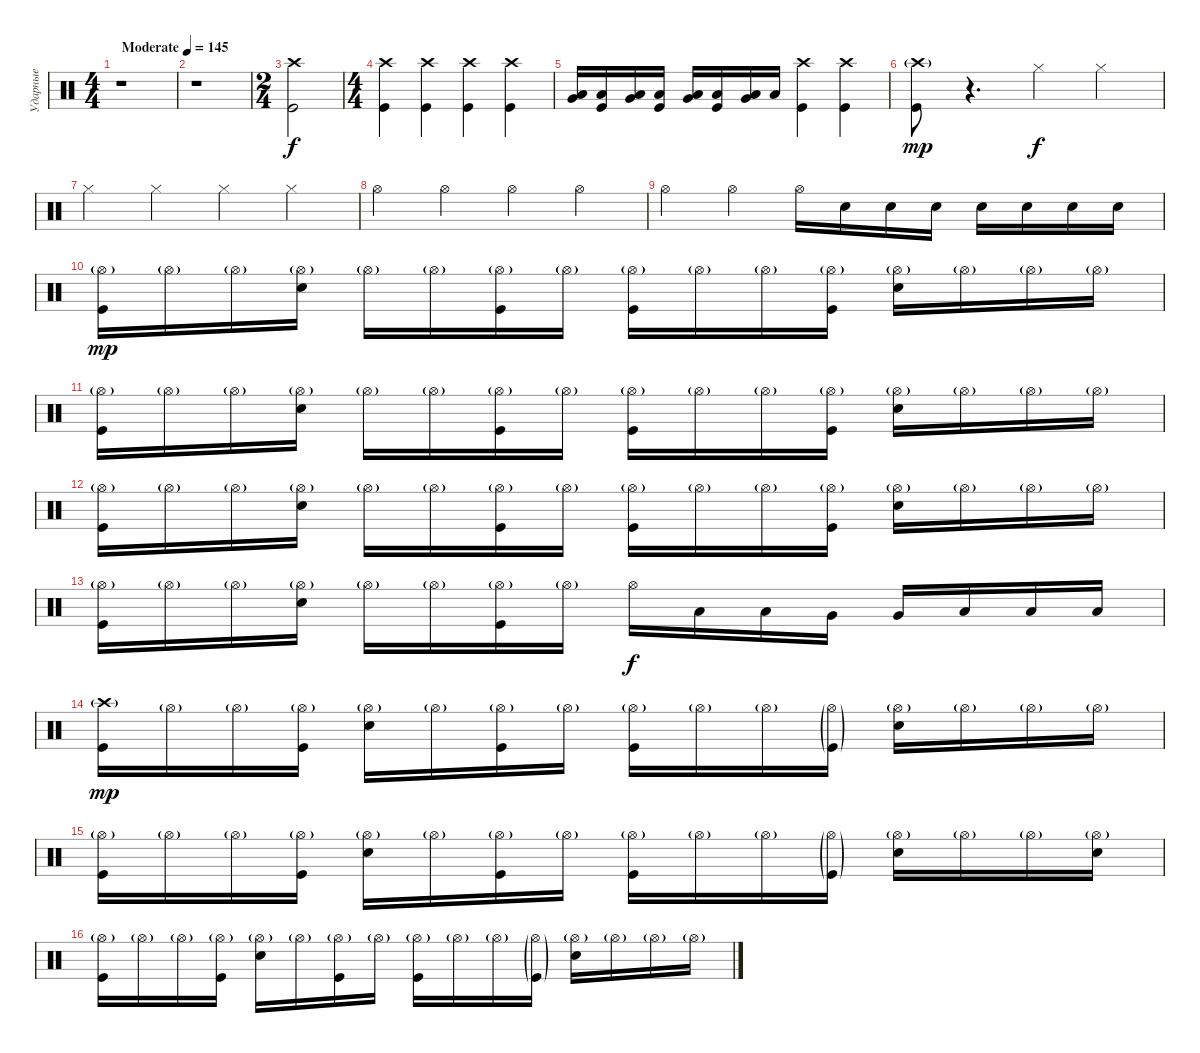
\track ("Ударные" "Ударные") {instrument percussion}
\staff {score}
\articulation defaults
\ts (4 4)
\tempo (145 "Moderate")
\clef neutral
\ks c
r.1{dy f} |
r.1 |
\ts (2 4)
("Crash high (hit)" "Kick (hit)").2 |
\ts (4 4)
("Crash high (hit)" "Kick (hit)").4 ("Crash high (hit)" "Kick (hit)").4 ("Crash high (hit)" "Kick (hit)").4 ("Crash high (hit)" "Kick (hit)").4 |
("Low Tom (hit)" "Very Low Tom (hit)").16 ("Low Tom (hit)" "Kick (hit)").16 ("Low Tom (hit)" "Very Low Tom (hit)").16 ("Low Tom (hit)" "Kick (hit)").16 ("Low Tom (hit)" "Very Low Tom (hit)").16 ("Low Tom (hit)" "Kick (hit)").16 ("Low Tom (hit)" "Very Low Tom (hit)").16 "Low Tom (hit)".16 ("Crash high (hit)" "Kick (hit)").4 ("Crash high (hit)" "Kick (hit)").4 |
("Crash high (hit)"{g} "Kick (hit)").8{dy mp} r.4{d} "Hi-Hat (closed)".4{dy f} "Hi-Hat (closed)".4 |
"Hi-Hat (closed)".4 "Hi-Hat (closed)".4 "Hi-Hat (closed)".4 "Hi-Hat (closed)".4 |
"Hi-Hat (open)".4 "Hi-Hat (open)".4 "Hi-Hat (open)".4 "Hi-Hat (open)".4 |
"Hi-Hat (open)".4 "Hi-Hat (open)".4 "Hi-Hat (open)".16 "Snare (hit) 2".16 "Snare (hit) 2".16 "Snare (hit) 2".16 "Snare (hit) 2".16 "Snare (hit) 2".16 "Snare (hit) 2".16 "Snare (hit) 2".16 |
("Hi-Hat (open)"{g} "Kick (hit)").16{dy mp} "Hi-Hat (open)"{g}.16 "Hi-Hat (open)"{g}.16 ("Hi-Hat (open)"{g} "Snare (hit) 2").16 "Hi-Hat (open)"{g}.16 "Hi-Hat (open)"{g}.16 ("Hi-Hat (open)"{g} "Kick (hit)").16 "Hi-Hat (open)"{g}.16 ("Hi-Hat (open)"{g} "Kick (hit)").16 "Hi-Hat (open)"{g}.16 "Hi-Hat (open)"{g}.16 ("Hi-Hat (open)"{g} "Kick (hit)").16 ("Hi-Hat (open)"{g} "Snare (hit) 2").16 "Hi-Hat (open)"{g}.16 "Hi-Hat (open)"{g}.16 "Hi-Hat (open)"{g}.16 |
("Hi-Hat (open)"{g} "Kick (hit)").16 "Hi-Hat (open)"{g}.16 "Hi-Hat (open)"{g}.16 ("Hi-Hat (open)"{g} "Snare (hit) 2").16 "Hi-Hat (open)"{g}.16 "Hi-Hat (open)"{g}.16 ("Hi-Hat (open)"{g} "Kick (hit)").16 "Hi-Hat (open)"{g}.16 ("Hi-Hat (open)"{g} "Kick (hit)").16 "Hi-Hat (open)"{g}.16 "Hi-Hat (open)"{g}.16 ("Hi-Hat (open)"{g} "Kick (hit)").16 ("Hi-Hat (open)"{g} "Snare (hit) 2").16 "Hi-Hat (open)"{g}.16 "Hi-Hat (open)"{g}.16 "Hi-Hat (open)"{g}.16 |
("Hi-Hat (open)"{g} "Kick (hit)").16 "Hi-Hat (open)"{g}.16 "Hi-Hat (open)"{g}.16 ("Hi-Hat (open)"{g} "Snare (hit) 2").16 "Hi-Hat (open)"{g}.16 "Hi-Hat (open)"{g}.16 ("Hi-Hat (open)"{g} "Kick (hit)").16 "Hi-Hat (open)"{g}.16 ("Hi-Hat (open)"{g} "Kick (hit)").16 "Hi-Hat (open)"{g}.16 "Hi-Hat (open)"{g}.16 ("Hi-Hat (open)"{g} "Kick (hit)").16 ("Hi-Hat (open)"{g} "Snare (hit) 2").16 "Hi-Hat (open)"{g}.16 "Hi-Hat (open)"{g}.16 "Hi-Hat (open)"{g}.16 |
("Hi-Hat (open)"{g} "Kick (hit)").16 "Hi-Hat (open)"{g}.16 "Hi-Hat (open)"{g}.16 ("Hi-Hat (open)"{g} "Snare (hit) 2").16 "Hi-Hat (open)"{g}.16 "Hi-Hat (open)"{g}.16 ("Hi-Hat (open)"{g} "Kick (hit)").16 "Hi-Hat (open)"{g}.16 "Hi-Hat (open)".16{dy f} "Low Tom (hit)".16 "Low Tom (hit)".16 "Very Low Tom (hit)".16 "Very Low Tom (hit)".16 "Low Floor Tom (hit)".16 "Low Floor Tom (hit)".16 "Low Floor Tom (hit)".16 |
("Crash high (hit)"{g} "Kick (hit)").16{dy mp} "Hi-Hat (open)"{g}.16 "Hi-Hat (open)"{g}.16 ("Hi-Hat (open)"{g} "Kick (hit)").16 ("Hi-Hat (open)"{g} "Snare (hit) 2").16 "Hi-Hat (open)"{g}.16 ("Hi-Hat (open)"{g} "Kick (hit)").16 "Hi-Hat (open)"{g}.16 ("Hi-Hat (open)"{g} "Kick (hit)").16 "Hi-Hat (open)"{g}.16 "Hi-Hat (open)"{g}.16 ("Hi-Hat (open)"{g} "Kick (hit)"{g}).16 ("Hi-Hat (open)"{g} "Snare (hit) 2").16 "Hi-Hat (open)"{g}.16 "Hi-Hat (open)"{g}.16 "Hi-Hat (open)"{g}.16 |
("Hi-Hat (open)"{g} "Kick (hit)").16 "Hi-Hat (open)"{g}.16 "Hi-Hat (open)"{g}.16 ("Hi-Hat (open)"{g} "Kick (hit)").16 ("Hi-Hat (open)"{g} "Snare (hit) 2").16 "Hi-Hat (open)"{g}.16 ("Hi-Hat (open)"{g} "Kick (hit)").16 "Hi-Hat (open)"{g}.16 ("Hi-Hat (open)"{g} "Kick (hit)").16 "Hi-Hat (open)"{g}.16 "Hi-Hat (open)"{g}.16 ("Hi-Hat (open)"{g} "Kick (hit)"{g}).16 ("Hi-Hat (open)"{g} "Snare (hit) 2").16 "Hi-Hat (open)"{g}.16 "Hi-Hat (open)"{g}.16 ("Hi-Hat (open)"{g} "Snare (hit) 2").16 |
("Hi-Hat (open)"{g} "Kick (hit)").16 "Hi-Hat (open)"{g}.16 "Hi-Hat (open)"{g}.16 ("Hi-Hat (open)"{g} "Kick (hit)").16 ("Hi-Hat (open)"{g} "Snare (hit) 2").16 "Hi-Hat (open)"{g}.16 ("Hi-Hat (open)"{g} "Kick (hit)").16 "Hi-Hat (open)"{g}.16 ("Hi-Hat (open)"{g} "Kick (hit)").16 "Hi-Hat (open)"{g}.16 "Hi-Hat (open)"{g}.16 ("Hi-Hat (open)"{g} "Kick (hit)"{g}).16 ("Hi-Hat (open)"{g} "Snare (hit) 2").16 "Hi-Hat (open)"{g}.16 "Hi-Hat (open)"{g}.16 "Hi-Hat (open)"{g}.16
